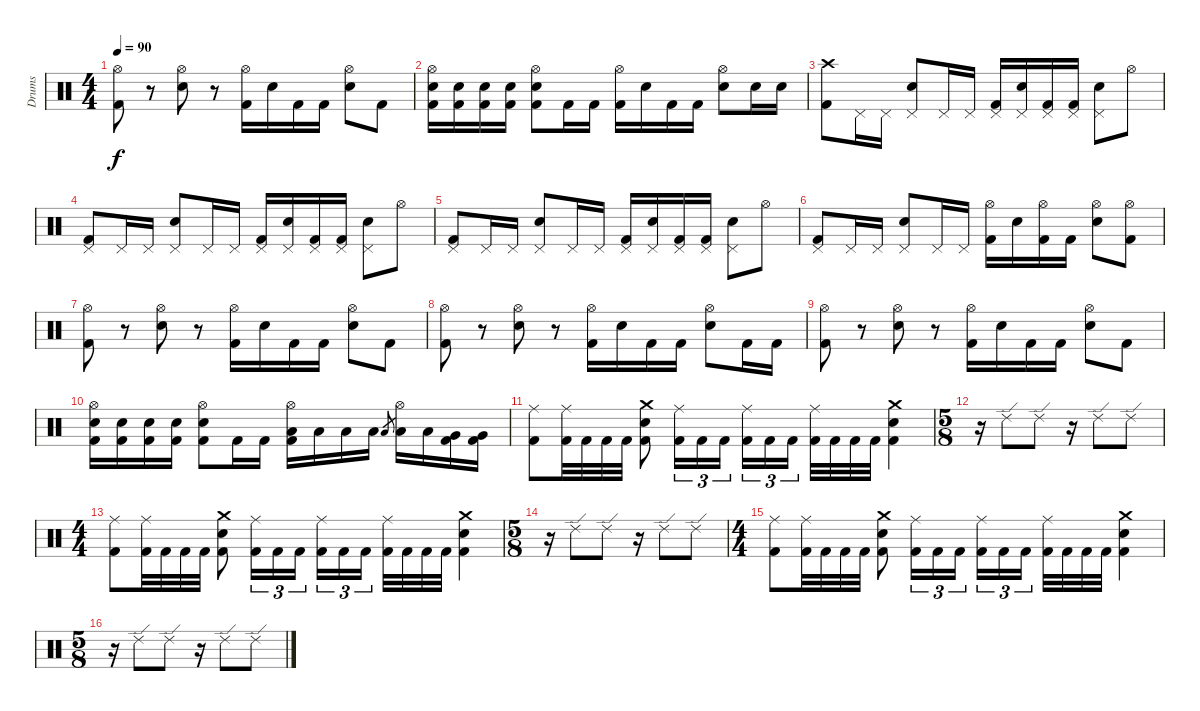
\track ("Drums" "Drums") {instrument percussion}
\staff {score}
\articulation defaults
\ts (4 4)
\tempo 90
\clef neutral
\ks c
("Hi-Hat (open)" "Kick (hit) 2").8{dy f} r.8 ("Hi-Hat (open)" "Electric Snare (hit)").8 r.8 ("Hi-Hat (open)" "Kick (hit) 2").16 "Electric Snare (hit)".16 "Kick (hit) 2".16 "Kick (hit) 2".16 ("Hi-Hat (open)" "Electric Snare (hit)").8 "Kick (hit) 2".8 |
("Hi-Hat (open)" "Electric Snare (hit)" "Kick (hit) 2").16 ("Electric Snare (hit)" "Kick (hit) 2").16 ("Electric Snare (hit)" "Kick (hit) 2").16 ("Electric Snare (hit)" "Kick (hit) 2").16 ("Hi-Hat (open)" "Electric Snare (hit)" "Kick (hit) 2").8 "Kick (hit) 2".16 "Kick (hit) 2".16 ("Hi-Hat (open)" "Kick (hit) 2").16 "Electric Snare (hit)".16 "Kick (hit) 2".16 "Kick (hit) 2".16 ("Hi-Hat (open)" "Electric Snare (hit)").8 "Electric Snare (hit)".16 "Electric Snare (hit)".16 |
("Crash high (hit)" "Kick (hit) 2").8 "Pedal Hi-Hat (hit)".16 "Pedal Hi-Hat (hit)".16 ("Pedal Hi-Hat (hit)" "Electric Snare (hit)").8 "Pedal Hi-Hat (hit)".16 "Pedal Hi-Hat (hit)".16 ("Pedal Hi-Hat (hit)" "Kick (hit) 2").16 ("Pedal Hi-Hat (hit)" "Electric Snare (hit)").16 ("Pedal Hi-Hat (hit)" "Kick (hit) 2").16 ("Pedal Hi-Hat (hit)" "Kick (hit) 2").16 ("Pedal Hi-Hat (hit)" "Electric Snare (hit)").8 "Hi-Hat (open)".8 |
("Pedal Hi-Hat (hit)" "Kick (hit) 2").8 "Pedal Hi-Hat (hit)".16 "Pedal Hi-Hat (hit)".16 ("Pedal Hi-Hat (hit)" "Electric Snare (hit)").8 "Pedal Hi-Hat (hit)".16 "Pedal Hi-Hat (hit)".16 ("Pedal Hi-Hat (hit)" "Kick (hit) 2").16 ("Pedal Hi-Hat (hit)" "Electric Snare (hit)").16 ("Pedal Hi-Hat (hit)" "Kick (hit) 2").16 ("Pedal Hi-Hat (hit)" "Kick (hit) 2").16 ("Pedal Hi-Hat (hit)" "Electric Snare (hit)").8 "Hi-Hat (open)".8 |
("Pedal Hi-Hat (hit)" "Kick (hit) 2").8 "Pedal Hi-Hat (hit)".16 "Pedal Hi-Hat (hit)".16 ("Pedal Hi-Hat (hit)" "Electric Snare (hit)").8 "Pedal Hi-Hat (hit)".16 "Pedal Hi-Hat (hit)".16 ("Pedal Hi-Hat (hit)" "Kick (hit) 2").16 ("Pedal Hi-Hat (hit)" "Electric Snare (hit)").16 ("Pedal Hi-Hat (hit)" "Kick (hit) 2").16 ("Pedal Hi-Hat (hit)" "Kick (hit) 2").16 ("Pedal Hi-Hat (hit)" "Electric Snare (hit)").8 "Hi-Hat (open)".8 |
("Pedal Hi-Hat (hit)" "Kick (hit) 2").8 "Pedal Hi-Hat (hit)".16 "Pedal Hi-Hat (hit)".16 ("Pedal Hi-Hat (hit)" "Electric Snare (hit)").8 "Pedal Hi-Hat (hit)".16 "Pedal Hi-Hat (hit)".16 ("Hi-Hat (open)" "Kick (hit) 2").16 "Electric Snare (hit)".16 ("Hi-Hat (open)" "Kick (hit) 2").16 "Kick (hit) 2".16 ("Hi-Hat (open)" "Electric Snare (hit)").8 ("Hi-Hat (open)" "Kick (hit) 2").8 |
("Hi-Hat (open)" "Kick (hit) 2").8 r.8 ("Hi-Hat (open)" "Electric Snare (hit)").8 r.8 ("Hi-Hat (open)" "Kick (hit) 2").16 "Electric Snare (hit)".16 "Kick (hit) 2".16 "Kick (hit) 2".16 ("Hi-Hat (open)" "Electric Snare (hit)").8 "Kick (hit) 2".8 |
("Hi-Hat (open)" "Kick (hit) 2").8 r.8 ("Hi-Hat (open)" "Electric Snare (hit)").8 r.8 ("Hi-Hat (open)" "Kick (hit) 2").16 "Electric Snare (hit)".16 "Kick (hit) 2".16 "Kick (hit) 2".16 ("Hi-Hat (open)" "Electric Snare (hit)").8 "Kick (hit) 2".16 "Kick (hit) 2".16 |
("Hi-Hat (open)" "Kick (hit) 2").8 r.8 ("Hi-Hat (open)" "Electric Snare (hit)").8 r.8 ("Hi-Hat (open)" "Kick (hit) 2").16 "Electric Snare (hit)".16 "Kick (hit) 2".16 "Kick (hit) 2".16 ("Hi-Hat (open)" "Electric Snare (hit)").8 "Kick (hit) 2".8 |
("Hi-Hat (open)" "Electric Snare (hit)" "Kick (hit) 2").16 ("Electric Snare (hit)" "Kick (hit) 2").16 ("Electric Snare (hit)" "Kick (hit) 2").16 ("Electric Snare (hit)" "Kick (hit) 2").16 ("Hi-Hat (open)" "Electric Snare (hit)" "Kick (hit) 2").8 "Kick (hit) 2".16 "Kick (hit) 2".16 ("Hi-Hat (open)" "Low Tom (hit)" "Kick (hit) 2").16 "Low Tom (hit)".16 "Low Tom (hit)".16 "Low Tom (hit)".16 "Low Tom (hit)".8{gr} ("Hi-Hat (open)" "Low Tom (hit)").16 "Low Tom (hit)".16 ("Very Low Tom (hit)" "Kick (hit) 2").16 ("Very Low Tom (hit)" "Kick (hit) 2").16 |
("Ride (middle)" "Kick (hit) 2").8 ("Ride (middle)" "Kick (hit) 2").32 "Kick (hit) 2".32 "Kick (hit) 2".32 "Kick (hit) 2".32 ("Crash medium (hit)" "Electric Snare (hit)" "Kick (hit) 2").8 ("Ride (middle)" "Kick (hit) 2").16{tu (3 2)} "Kick (hit) 2".16{tu (3 2)} "Kick (hit) 2".16{tu (3 2)} ("Ride (middle)" "Kick (hit) 2").16{tu (3 2)} "Kick (hit) 2".16{tu (3 2)} "Kick (hit) 2".16{tu (3 2)} ("Ride (middle)" "Kick (hit) 2").32 "Kick (hit) 2".32 "Kick (hit) 2".32 "Kick (hit) 2".32 ("Crash medium (hit)" "Electric Snare (hit)" "Kick (hit) 2").4 |
\ts (5 8)
r.16 "Ride (edge) 2".8 "Ride (edge) 2".8 r.16 "Ride (edge) 2".8 "Ride (edge) 2".8 |
\ts (4 4)
("Ride (middle)" "Kick (hit) 2").8 ("Ride (middle)" "Kick (hit) 2").32 "Kick (hit) 2".32 "Kick (hit) 2".32 "Kick (hit) 2".32 ("Crash medium (hit)" "Electric Snare (hit)" "Kick (hit) 2").8 ("Ride (middle)" "Kick (hit) 2").16{tu (3 2)} "Kick (hit) 2".16{tu (3 2)} "Kick (hit) 2".16{tu (3 2)} ("Ride (middle)" "Kick (hit) 2").16{tu (3 2)} "Kick (hit) 2".16{tu (3 2)} "Kick (hit) 2".16{tu (3 2)} ("Ride (middle)" "Kick (hit) 2").32 "Kick (hit) 2".32 "Kick (hit) 2".32 "Kick (hit) 2".32 ("Crash medium (hit)" "Electric Snare (hit)" "Kick (hit) 2").4 |
\ts (5 8)
r.16 "Ride (edge) 2".8 "Ride (edge) 2".8 r.16 "Ride (edge) 2".8 "Ride (edge) 2".8 |
\ts (4 4)
("Ride (middle)" "Kick (hit) 2").8 ("Ride (middle)" "Kick (hit) 2").32 "Kick (hit) 2".32 "Kick (hit) 2".32 "Kick (hit) 2".32 ("Crash medium (hit)" "Electric Snare (hit)" "Kick (hit) 2").8 ("Ride (middle)" "Kick (hit) 2").16{tu (3 2)} "Kick (hit) 2".16{tu (3 2)} "Kick (hit) 2".16{tu (3 2)} ("Ride (middle)" "Kick (hit) 2").16{tu (3 2)} "Kick (hit) 2".16{tu (3 2)} "Kick (hit) 2".16{tu (3 2)} ("Ride (middle)" "Kick (hit) 2").32 "Kick (hit) 2".32 "Kick (hit) 2".32 "Kick (hit) 2".32 ("Crash medium (hit)" "Electric Snare (hit)" "Kick (hit) 2").4 |
\ts (5 8)
r.16 "Ride (edge) 2".8 "Ride (edge) 2".8 r.16 "Ride (edge) 2".8 "Ride (edge) 2".8
